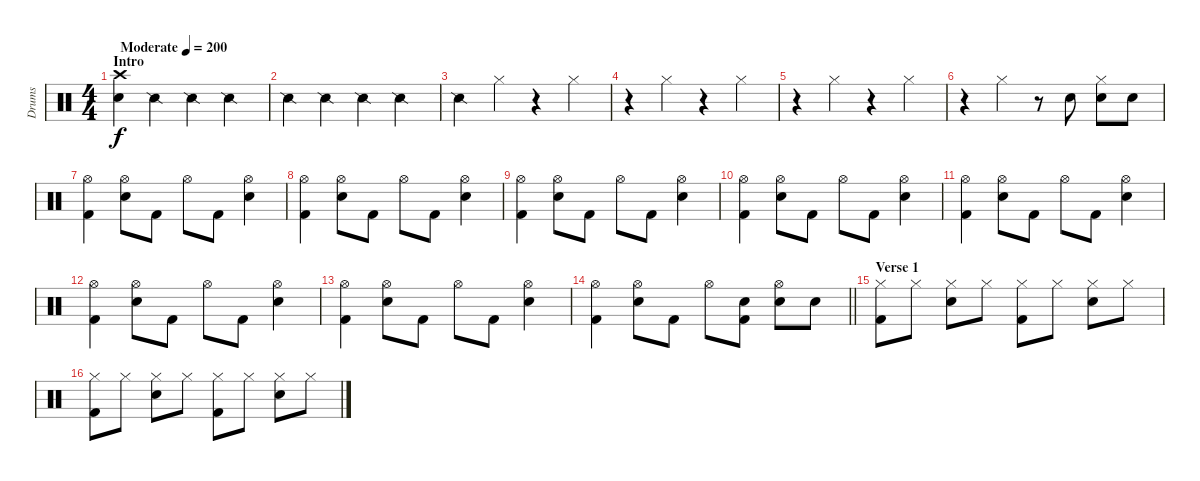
\track ("Drums" "Drums") {instrument percussion}
\staff {score}
\articulation defaults
\ts (4 4)
\section ("" "Intro")
\tempo (200 "Moderate")
\clef neutral
\ks c
("Snare (hit) 2" "Crash high (hit)").4{dy f} "Snare (side stick) 2".4 "Snare (side stick) 2".4 "Snare (side stick) 2".4 |
"Snare (side stick) 2".4 "Snare (side stick) 2".4 "Snare (side stick) 2".4 "Snare (side stick) 2".4 |
"Snare (side stick) 2".4 "Hi-Hat (closed)".4 r.4 "Hi-Hat (closed)".4 |
r.4 "Hi-Hat (closed)".4 r.4 "Hi-Hat (closed)".4 |
r.4 "Hi-Hat (closed)".4 r.4 "Hi-Hat (closed)".4 |
r.4 "Hi-Hat (closed)".4 r.8 "Snare (hit) 2".8 ("Snare (hit) 2" "Hi-Hat (closed)").8 "Snare (hit) 2".8 |
("Hi-Hat (open)" "Kick (hit) 2").4 ("Snare (hit) 2" "Hi-Hat (open)").8 "Kick (hit) 2".8 "Hi-Hat (open)".8 "Kick (hit) 2".8 ("Snare (hit) 2" "Hi-Hat (open)").4 |
("Hi-Hat (open)" "Kick (hit) 2").4 ("Snare (hit) 2" "Hi-Hat (open)").8 "Kick (hit) 2".8 "Hi-Hat (open)".8 "Kick (hit) 2".8 ("Snare (hit) 2" "Hi-Hat (open)").4 |
("Hi-Hat (open)" "Kick (hit) 2").4 ("Snare (hit) 2" "Hi-Hat (open)").8 "Kick (hit) 2".8 "Hi-Hat (open)".8 "Kick (hit) 2".8 ("Snare (hit) 2" "Hi-Hat (open)").4 |
("Hi-Hat (open)" "Kick (hit) 2").4 ("Snare (hit) 2" "Hi-Hat (open)").8 "Kick (hit) 2".8 "Hi-Hat (open)".8 "Kick (hit) 2".8 ("Snare (hit) 2" "Hi-Hat (open)").4 |
("Hi-Hat (open)" "Kick (hit) 2").4 ("Snare (hit) 2" "Hi-Hat (open)").8 "Kick (hit) 2".8 "Hi-Hat (open)".8 "Kick (hit) 2".8 ("Snare (hit) 2" "Hi-Hat (open)").4 |
("Hi-Hat (open)" "Kick (hit) 2").4 ("Snare (hit) 2" "Hi-Hat (open)").8 "Kick (hit) 2".8 "Hi-Hat (open)".8 "Kick (hit) 2".8 ("Snare (hit) 2" "Hi-Hat (open)").4 |
("Hi-Hat (open)" "Kick (hit) 2").4 ("Snare (hit) 2" "Hi-Hat (open)").8 "Kick (hit) 2".8 "Hi-Hat (open)".8 "Kick (hit) 2".8 ("Snare (hit) 2" "Hi-Hat (open)").4 |
\barLineRight lightlight
("Hi-Hat (open)" "Kick (hit) 2").4 ("Snare (hit) 2" "Hi-Hat (open)").8 "Kick (hit) 2".8 "Hi-Hat (open)".8 ("Snare (hit) 2" "Kick (hit) 2").8 ("Snare (hit) 2" "Hi-Hat (open)").8 "Snare (hit) 2".8 |
\section ("" "Verse 1")
("Hi-Hat (closed)" "Kick (hit) 2").8 "Hi-Hat (closed)".8 ("Snare (hit) 2" "Hi-Hat (closed)").8 "Hi-Hat (closed)".8 ("Hi-Hat (closed)" "Kick (hit) 2").8 "Hi-Hat (closed)".8 ("Snare (hit) 2" "Hi-Hat (closed)").8 "Hi-Hat (closed)".8 |
("Hi-Hat (closed)" "Kick (hit) 2").8 "Hi-Hat (closed)".8 ("Snare (hit) 2" "Hi-Hat (closed)").8 "Hi-Hat (closed)".8 ("Hi-Hat (closed)" "Kick (hit) 2").8 "Hi-Hat (closed)".8 ("Snare (hit) 2" "Hi-Hat (closed)").8 "Hi-Hat (closed)".8
